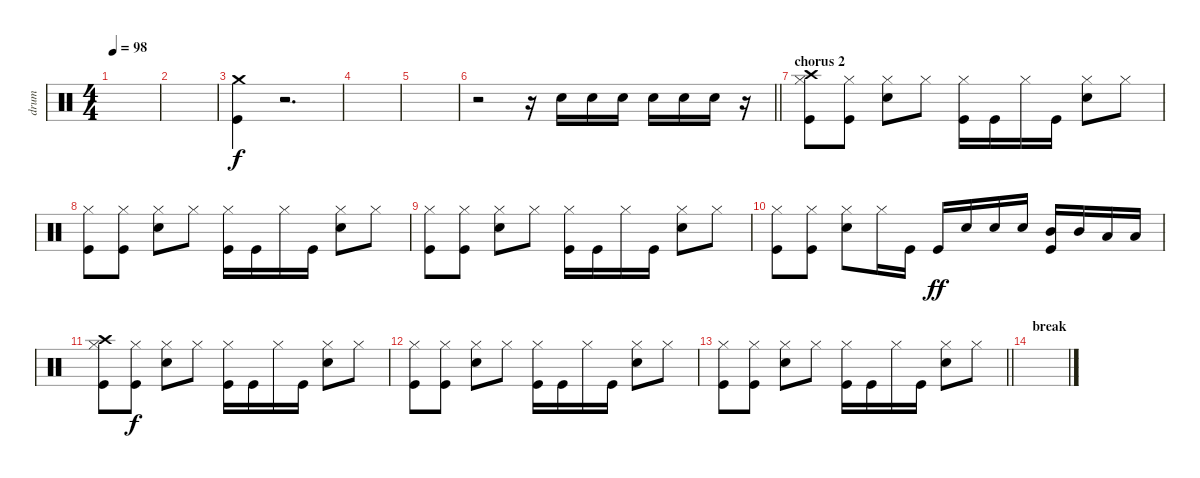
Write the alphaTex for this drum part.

\track ("drum" "drum") {instrument percussion}
\staff {score}
\articulation defaults
\ts (4 4)
\tempo 98
\clef neutral
\ks c
|
|
("Crash medium (hit)" "Kick (hit)").4 r.2{d} |
|
|
\barLineRight lightlight
r.2 r.16 "Electric Snare (hit)".16 "Electric Snare (hit)".16 "Electric Snare (hit)".16 "Electric Snare (hit)".16 "Electric Snare (hit)".16 "Electric Snare (hit)".16 r.16 |
\section ("" "chorus 2")
("Crash high (hit)" "Hi-Hat (closed)" "Kick (hit)").8 ("Hi-Hat (closed)" "Kick (hit)").8{dy f} ("Hi-Hat (closed)" "Electric Snare (hit)").8 "Hi-Hat (closed)".8 ("Hi-Hat (closed)" "Kick (hit)").16 "Kick (hit)".16 "Hi-Hat (closed)".16 "Kick (hit)".16 ("Hi-Hat (closed)" "Electric Snare (hit)").8 "Hi-Hat (closed)".8 |
("Hi-Hat (closed)" "Kick (hit)").8 ("Hi-Hat (closed)" "Kick (hit)").8 ("Hi-Hat (closed)" "Electric Snare (hit)").8 "Hi-Hat (closed)".8 ("Hi-Hat (closed)" "Kick (hit)").16 "Kick (hit)".16 "Hi-Hat (closed)".16 "Kick (hit)".16 ("Hi-Hat (closed)" "Electric Snare (hit)").8 "Hi-Hat (closed)".8 |
("Hi-Hat (closed)" "Kick (hit)").8 ("Hi-Hat (closed)" "Kick (hit)").8 ("Hi-Hat (closed)" "Electric Snare (hit)").8 "Hi-Hat (closed)".8 ("Hi-Hat (closed)" "Kick (hit)").16 "Kick (hit)".16 "Hi-Hat (closed)".16 "Kick (hit)".16 ("Hi-Hat (closed)" "Electric Snare (hit)").8 "Hi-Hat (closed)".8 |
("Hi-Hat (closed)" "Kick (hit)").8 ("Hi-Hat (closed)" "Kick (hit)").8 ("Hi-Hat (closed)" "Electric Snare (hit)").8 "Hi-Hat (closed)".16 "Kick (hit)".16 "Kick (hit)".16{dy ff} "Electric Snare (hit)".16 "Electric Snare (hit)".16 "Electric Snare (hit)".16 ("Mid Tom (hit)" "Kick (hit)").16 "Mid Tom (hit)".16 "Low Tom (hit)".16 "Low Tom (hit)".16 |
("Crash high (hit)" "Hi-Hat (closed)" "Kick (hit)").8 ("Hi-Hat (closed)" "Kick (hit)").8{dy f} ("Hi-Hat (closed)" "Electric Snare (hit)").8 "Hi-Hat (closed)".8 ("Hi-Hat (closed)" "Kick (hit)").16 "Kick (hit)".16 "Hi-Hat (closed)".16 "Kick (hit)".16 ("Hi-Hat (closed)" "Electric Snare (hit)").8 "Hi-Hat (closed)".8 |
("Hi-Hat (closed)" "Kick (hit)").8 ("Hi-Hat (closed)" "Kick (hit)").8 ("Hi-Hat (closed)" "Electric Snare (hit)").8 "Hi-Hat (closed)".8 ("Hi-Hat (closed)" "Kick (hit)").16 "Kick (hit)".16 "Hi-Hat (closed)".16 "Kick (hit)".16 ("Hi-Hat (closed)" "Electric Snare (hit)").8 "Hi-Hat (closed)".8 |
\barLineRight lightlight
("Hi-Hat (closed)" "Kick (hit)").8 ("Hi-Hat (closed)" "Kick (hit)").8 ("Hi-Hat (closed)" "Electric Snare (hit)").8 "Hi-Hat (closed)".8 ("Hi-Hat (closed)" "Kick (hit)").16 "Kick (hit)".16 "Hi-Hat (closed)".16 "Kick (hit)".16 ("Hi-Hat (closed)" "Electric Snare (hit)").8 "Hi-Hat (closed)".8 |
\section ("" "break")
